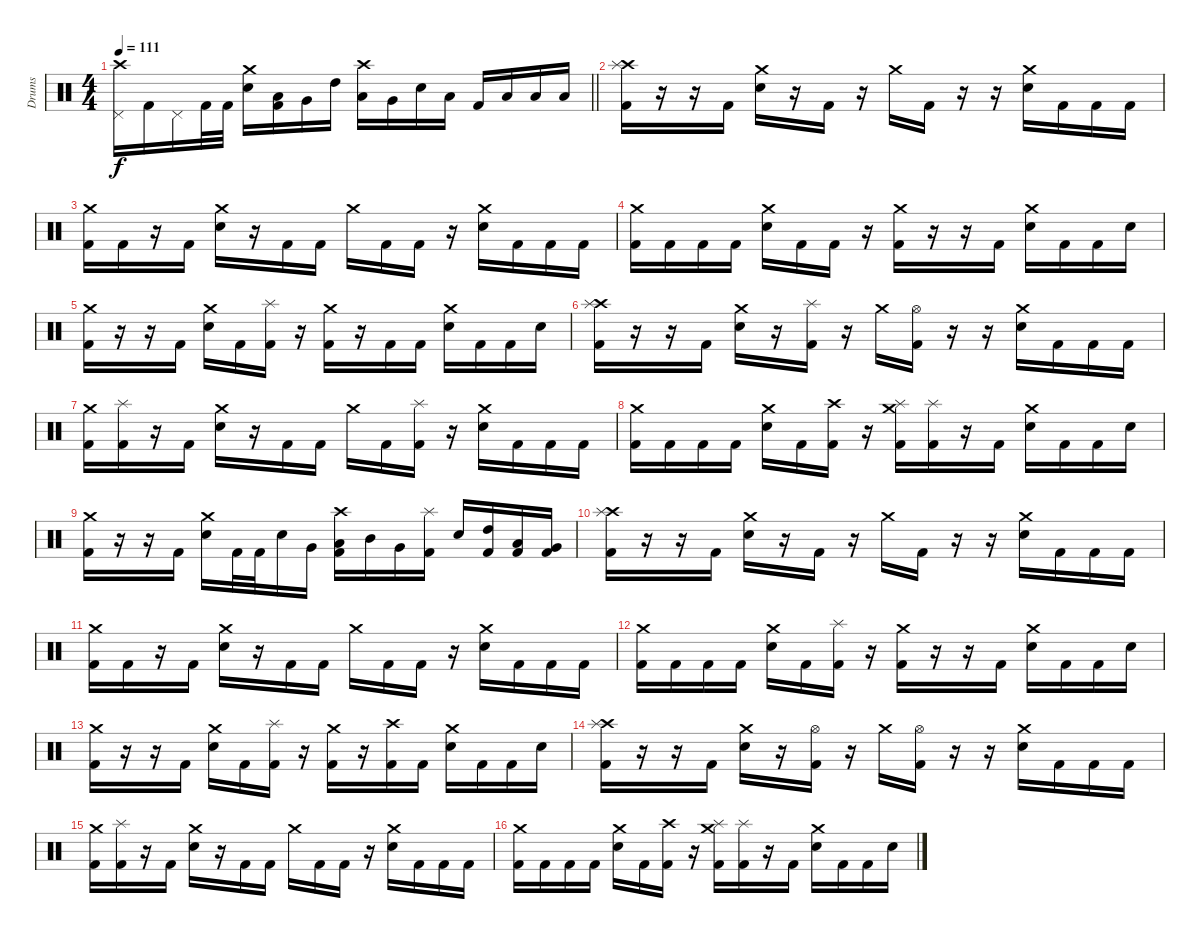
\track ("Drums" "Drums") {instrument percussion}
\staff {score}
\articulation defaults
\ts (4 4)
\tempo 111
\clef neutral
\barLineRight lightlight
\ks c
("Crash high (hit)" "Pedal Hi-Hat (hit)").16{dy f} "Kick (hit) 2".16 "Pedal Hi-Hat (hit)".16 "Kick (hit) 2".32 "Kick (hit) 2".32 ("Crash medium (hit)" "Electric Snare (hit)").16 ("Low Floor Tom (hit)" "Kick (hit) 2").16 "Very Low Tom (hit)".16 "High Tom (hit)".16 ("Crash high (hit)" "Low Tom (hit)").16 "Very Low Tom (hit)".16 "Electric Snare (hit)".16 "Low Tom (hit)".16 "Kick (hit) 2".16 "Low Floor Tom (hit)".16 "Low Floor Tom (hit)".16 "Low Floor Tom (hit)".16 |
\section ("" "")
("Crash high (hit)" "Splash (hit)" "Kick (hit) 2").16 r.16 r.16 "Kick (hit) 2".16 ("Crash medium (hit)" "Electric Snare (hit)").16 r.16 "Kick (hit) 2".16 r.16 "Crash medium (hit)".16 "Kick (hit) 2".16 r.16 r.16 ("Crash medium (hit)" "Electric Snare (hit)").16 "Kick (hit) 2".16 "Kick (hit) 2".16 "Kick (hit) 2".16 |
("Crash medium (hit)" "Kick (hit) 2").16 "Kick (hit) 2".16 r.16 "Kick (hit) 2".16 ("Crash medium (hit)" "Electric Snare (hit)").16 r.16 "Kick (hit) 2".16 "Kick (hit) 2".16 "Crash medium (hit)".16 "Kick (hit) 2".16 "Kick (hit) 2".16 r.16 ("Crash medium (hit)" "Electric Snare (hit)").16 "Kick (hit) 2".16 "Kick (hit) 2".16 "Kick (hit) 2".16 |
("Crash medium (hit)" "Kick (hit) 2").16 "Kick (hit) 2".16 "Kick (hit) 2".16 "Kick (hit) 2".16 ("Crash medium (hit)" "Electric Snare (hit)").16 "Kick (hit) 2".16 "Kick (hit) 2".16 r.16 ("Crash medium (hit)" "Kick (hit) 2").16 r.16 r.16 "Kick (hit) 2".16 ("Crash medium (hit)" "Electric Snare (hit)").16 "Kick (hit) 2".16 "Kick (hit) 2".16 "Electric Snare (hit)".16 |
("Crash medium (hit)" "Kick (hit) 2").16 r.16 r.16 "Kick (hit) 2".16 ("Crash medium (hit)" "Electric Snare (hit)").16 "Kick (hit) 2".16 ("Splash (hit)" "Kick (hit) 2").16 r.16 ("Crash medium (hit)" "Kick (hit) 2").16 r.16 "Kick (hit) 2".16 "Kick (hit) 2".16 ("Crash medium (hit)" "Electric Snare (hit)").16 "Kick (hit) 2".16 "Kick (hit) 2".16 "Electric Snare (hit)".16 |
("Crash high (hit)" "Splash (hit)" "Kick (hit) 2").16 r.16 r.16 "Kick (hit) 2".16 ("Crash medium (hit)" "Electric Snare (hit)").16 r.16 ("Splash (hit)" "Kick (hit) 2").16 r.16 "Crash medium (hit)".16 ("Hi-Hat (open)" "Kick (hit) 2").16 r.16 r.16 ("Crash medium (hit)" "Electric Snare (hit)").16 "Kick (hit) 2".16 "Kick (hit) 2".16 "Kick (hit) 2".16 |
("Crash medium (hit)" "Kick (hit) 2").16 ("Splash (hit)" "Kick (hit) 2").16 r.16 "Kick (hit) 2".16 ("Crash medium (hit)" "Electric Snare (hit)").16 r.16 "Kick (hit) 2".16 "Kick (hit) 2".16 "Crash medium (hit)".16 "Kick (hit) 2".16 ("Splash (hit)" "Kick (hit) 2").16 r.16 ("Crash medium (hit)" "Electric Snare (hit)").16 "Kick (hit) 2".16 "Kick (hit) 2".16 "Kick (hit) 2".16 |
("Crash medium (hit)" "Kick (hit) 2").16 "Kick (hit) 2".16 "Kick (hit) 2".16 "Kick (hit) 2".16 ("Crash medium (hit)" "Electric Snare (hit)").16 "Kick (hit) 2".16 ("Crash high (hit)" "Kick (hit) 2").16 r.16 ("Crash medium (hit)" "Splash (hit)" "Kick (hit) 2").16 ("Splash (hit)" "Kick (hit) 2").16 r.16 "Kick (hit) 2".16 ("Crash medium (hit)" "Electric Snare (hit)").16 "Kick (hit) 2".16 "Kick (hit) 2".16 "Electric Snare (hit)".16 |
("Crash medium (hit)" "Kick (hit) 2").16 r.16 r.16 "Kick (hit) 2".16 ("Crash medium (hit)" "Electric Snare (hit)").16 "Kick (hit) 2".32 "Kick (hit) 2".32 "Electric Snare (hit)".16 "Very Low Tom (hit)".16 ("Crash high (hit)" "Low Tom (hit)" "Kick (hit) 2").16 "Mid Tom (hit)".16 "Very Low Tom (hit)".16 ("Splash (hit)" "Kick (hit) 2").16 "Electric Snare (hit)".16 ("High Tom (hit)" "Kick (hit) 2").16 ("Low Tom (hit)" "Kick (hit) 2").16 ("Very Low Tom (hit)" "Kick (hit) 2").16 |
("Crash high (hit)" "Splash (hit)" "Kick (hit) 2").16 r.16 r.16 "Kick (hit) 2".16 ("Crash medium (hit)" "Electric Snare (hit)").16 r.16 "Kick (hit) 2".16 r.16 "Crash medium (hit)".16 "Kick (hit) 2".16 r.16 r.16 ("Crash medium (hit)" "Electric Snare (hit)").16 "Kick (hit) 2".16 "Kick (hit) 2".16 "Kick (hit) 2".16 |
("Crash medium (hit)" "Kick (hit) 2").16 "Kick (hit) 2".16 r.16 "Kick (hit) 2".16 ("Crash medium (hit)" "Electric Snare (hit)").16 r.16 "Kick (hit) 2".16 "Kick (hit) 2".16 "Crash medium (hit)".16 "Kick (hit) 2".16 "Kick (hit) 2".16 r.16 ("Crash medium (hit)" "Electric Snare (hit)").16 "Kick (hit) 2".16 "Kick (hit) 2".16 "Kick (hit) 2".16 |
("Crash medium (hit)" "Kick (hit) 2").16 "Kick (hit) 2".16 "Kick (hit) 2".16 "Kick (hit) 2".16 ("Crash medium (hit)" "Electric Snare (hit)").16 "Kick (hit) 2".16 ("Splash (hit)" "Kick (hit) 2").16 r.16 ("Crash medium (hit)" "Kick (hit) 2").16 r.16 r.16 "Kick (hit) 2".16 ("Crash medium (hit)" "Electric Snare (hit)").16 "Kick (hit) 2".16 "Kick (hit) 2".16 "Electric Snare (hit)".16 |
("Crash medium (hit)" "Kick (hit) 2").16 r.16 r.16 "Kick (hit) 2".16 ("Crash medium (hit)" "Electric Snare (hit)").16 "Kick (hit) 2".16 ("Splash (hit)" "Kick (hit) 2").16 r.16 ("Crash medium (hit)" "Kick (hit) 2").16 r.16 ("Crash high (hit)" "Kick (hit) 2").16 "Kick (hit) 2".16 ("Crash medium (hit)" "Electric Snare (hit)").16 "Kick (hit) 2".16 "Kick (hit) 2".16 "Electric Snare (hit)".16 |
("Crash high (hit)" "Splash (hit)" "Kick (hit) 2").16 r.16 r.16 "Kick (hit) 2".16 ("Crash medium (hit)" "Electric Snare (hit)").16 r.16 ("Hi-Hat (open)" "Kick (hit) 2").16 r.16 "Crash medium (hit)".16 ("Hi-Hat (open)" "Kick (hit) 2").16 r.16 r.16 ("Crash medium (hit)" "Electric Snare (hit)").16 "Kick (hit) 2".16 "Kick (hit) 2".16 "Kick (hit) 2".16 |
("Crash medium (hit)" "Kick (hit) 2").16 ("Splash (hit)" "Kick (hit) 2").16 r.16 "Kick (hit) 2".16 ("Crash medium (hit)" "Electric Snare (hit)").16 r.16 "Kick (hit) 2".16 "Kick (hit) 2".16 "Crash medium (hit)".16 "Kick (hit) 2".16 "Kick (hit) 2".16 r.16 ("Crash medium (hit)" "Electric Snare (hit)").16 "Kick (hit) 2".16 "Kick (hit) 2".16 "Kick (hit) 2".16 |
("Crash medium (hit)" "Kick (hit) 2").16 "Kick (hit) 2".16 "Kick (hit) 2".16 "Kick (hit) 2".16 ("Crash medium (hit)" "Electric Snare (hit)").16 "Kick (hit) 2".16 ("Crash high (hit)" "Kick (hit) 2").16 r.16 ("Crash medium (hit)" "Splash (hit)" "Kick (hit) 2").16 ("Splash (hit)" "Kick (hit) 2").16 r.16 "Kick (hit) 2".16 ("Crash medium (hit)" "Electric Snare (hit)").16 "Kick (hit) 2".16 "Kick (hit) 2".16 "Electric Snare (hit)".16
